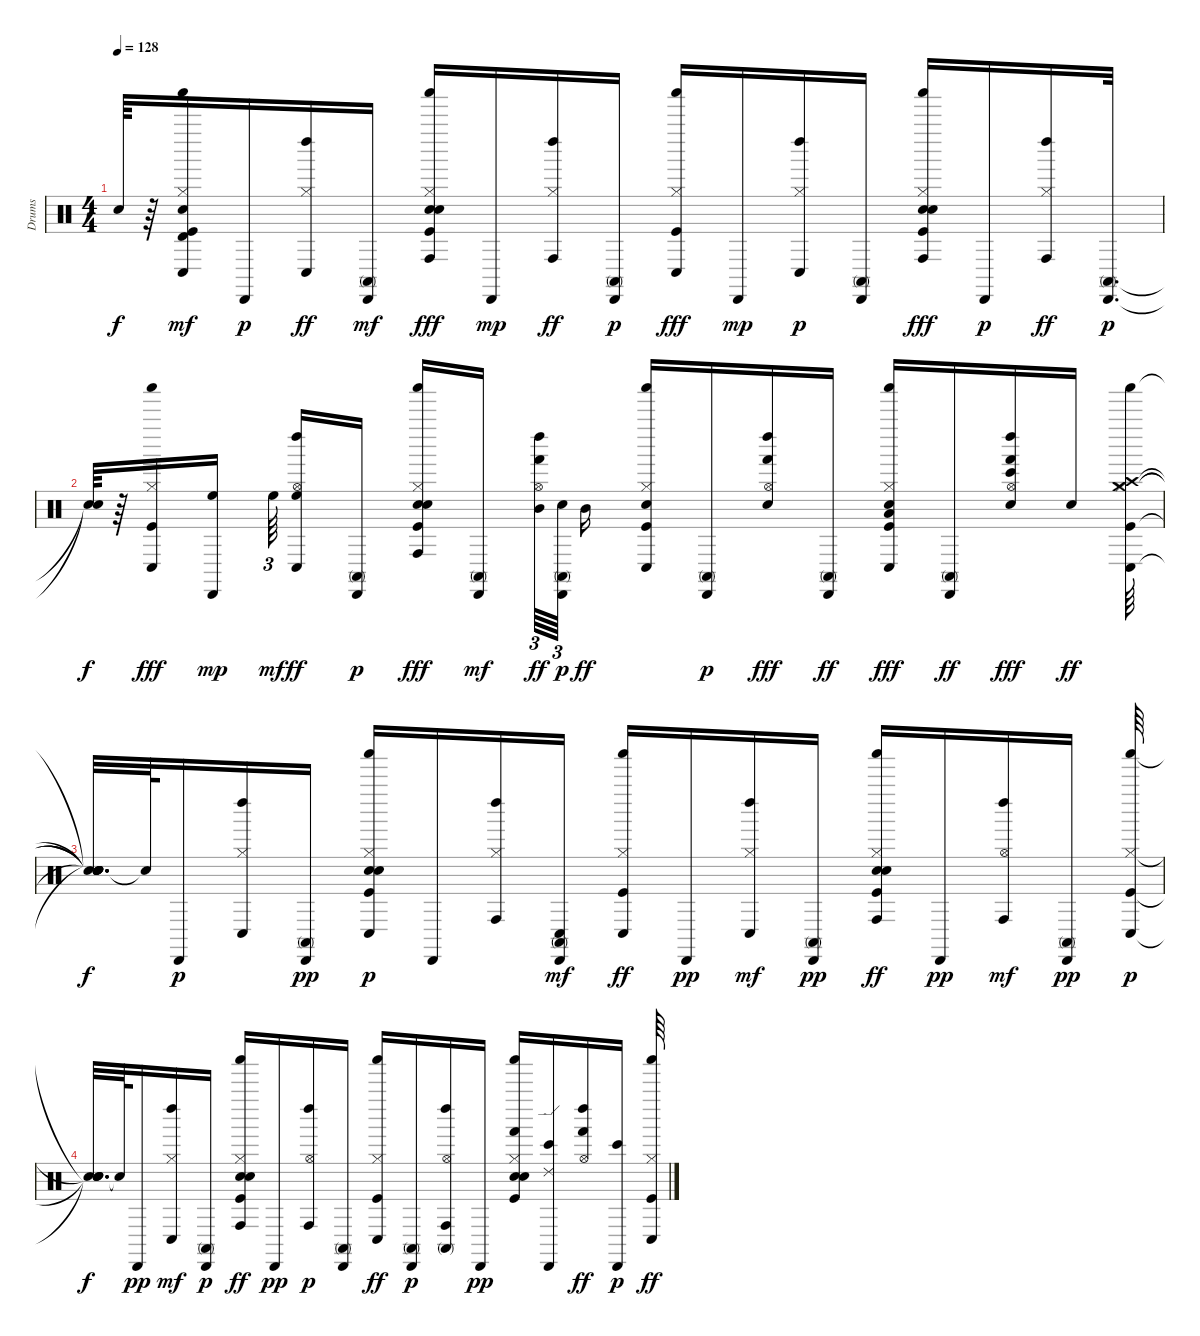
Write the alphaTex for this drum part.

\track ("Drums" "Drums") {instrument percussion}
\staff {score}
\articulation defaults
\ts (4 4)
\tempo 128
\clef neutral
\ks c "Snare (hit)"{t}.64{dy f}
r.64 ("Kick (hit)" "Snare (hit) 2" "Hi-Hat (closed)" "Shaker (hit)" "Conga low (hit)" "Timbale high (hit)").16{dy mf} "Cabasa (hit)".16{dy p} ("Hi-Hat (closed)" "Left Maraca (hit)" "Conga low (hit)").16{dy ff} ("Cabasa (hit)" "Conga high (mute)").16{dy mf} ("Kick (hit)" "Snare (hit) 2" "Hand Clap (hit)" "Hi-Hat (closed)" "Shaker (hit)" "Conga high (hit)").16{dy fff} "Cabasa (hit)".16{dy mp} ("Hi-Hat (closed)" "Left Maraca (hit)" "Conga high (hit)").16{dy ff} ("Cabasa (hit)" "Conga high (mute)").16{dy p} ("Kick (hit)" "Hi-Hat (closed)" "Shaker (hit)" "Conga low (hit)").16{dy fff} "Cabasa (hit)".16{dy mp} ("Hi-Hat (closed)" "Left Maraca (hit)" "Conga low (hit)").16{dy p} ("Cabasa (hit)" "Conga high (mute)").16 ("Kick (hit)" "Snare (hit) 2" "Hand Clap (hit)" "Hi-Hat (closed)" "Shaker (hit)" "Conga high (hit)").16{dy fff} "Cabasa (hit)".16{dy p} ("Hi-Hat (closed)" "Left Maraca (hit)" "Conga high (hit)").16{dy ff} ("Cabasa (hit)" "Conga high (mute)").32{d dy p} |
("Snare (hit)"{t} "Snare (hit)"{t}).64{dy f} r.64 ("Kick (hit)" "Hi-Hat (closed)" "Shaker (hit)" "Conga low (hit)").16{dy fff} ("Cabasa (hit)" "High Floor Tom (hit)").16{dy mp} "High Floor Tom (hit)".64{tu (3 2) dy mf} ("Hi-Hat (open)" "Left Maraca (hit)" "High Floor Tom (hit)" "Conga low (hit)").16{dy ff} ("Cabasa (hit)" "Conga high (mute)").16{dy p} ("Kick (hit)" "Snare (hit) 2" "Hand Clap (hit)" "Hi-Hat (closed)" "Shaker (hit)" "Conga high (hit)").16{dy fff} ("Cabasa (hit)" "Conga high (mute)").16{dy mf} ("Hi-Hat (open)" "Left Maraca (hit)" "Hand (hit)" "Mid Tom (hit)").64{tu (3 2) dy ff} ("Snare (hit) 2" "Cabasa (hit)" "Conga high (mute)").64{tu (3 2) dy p} "Mid Tom (hit)".16{dy ff} ("Kick (hit)" "Snare (hit) 2" "Hi-Hat (closed)" "Shaker (hit)" "Conga low (hit)").16 ("Cabasa (hit)" "Conga high (mute)").16{dy p} ("Snare (hit) 2" "Hi-Hat (open)" "Left Maraca (hit)" "Hand (hit)").16{dy fff} ("Cabasa (hit)" "Conga high (mute)").16{dy ff} ("Low Tom (hit)" "Kick (hit)" "Hand Clap (hit)" "Hi-Hat (closed)" "Shaker (hit)" "Conga low (hit)").16{dy fff} ("Cabasa (hit)" "Conga high (mute)").16{dy ff} ("Snare (hit) 2" "Hi-Hat (open)" "Left Maraca (hit)" "Hand (hit)" "Bongo High (hit)").16{dy fff} "Snare (hit) 2".16{dy ff} ("Kick (hit)" "Hi-Hat (closed)" "Crash medium (hit)" "Crash high (hit)" "Shaker (hit)" "Conga low (hit)").64 |
("Snare (hit)"{t} "Snare (hit)"{t} "Snare (hit)"{t} "Snare (hit)"{t} "Snare (hit)"{t} "Snare (hit)"{t}).32{d dy f} "Snare (hit)"{t}.64 "Cabasa (hit)".16{dy p} ("Hi-Hat (closed)" "Left Maraca (hit)" "Conga low (hit)").16 ("Cabasa (hit)" "Conga high (mute)").16{dy pp} ("Kick (hit)" "Snare (hit) 2" "Hand Clap (hit)" "Hi-Hat (closed)" "Shaker (hit)" "Conga low (hit)").16{dy p} "Cabasa (hit)".16 ("Hi-Hat (closed)" "Left Maraca (hit)" "Conga high (hit)").16 ("Cabasa (hit)" "Conga high (mute)" "Conga low (hit)").16{dy mf} ("Kick (hit)" "Hi-Hat (closed)" "Shaker (hit)" "Conga low (hit)").16{dy ff} "Cabasa (hit)".16{dy pp} ("Hi-Hat (closed)" "Left Maraca (hit)" "Conga low (hit)").16{dy mf} ("Cabasa (hit)" "Conga high (mute)").16{dy pp} ("Kick (hit)" "Snare (hit) 2" "Hand Clap (hit)" "Hi-Hat (closed)" "Shaker (hit)" "Conga high (hit)").16{dy ff} "Cabasa (hit)".16{dy pp} ("Hi-Hat (open)" "Left Maraca (hit)" "Conga high (hit)").16{dy mf} ("Cabasa (hit)" "Conga high (mute)").16{dy pp} ("Kick (hit)" "Hi-Hat (closed)" "Shaker (hit)" "Conga low (hit)").64{dy p} |
("Snare (hit)"{t} "Snare (hit)"{t} "Snare (hit)"{t} "Snare (hit)"{t}).32{d dy f} "Snare (hit)"{t}.64 "Cabasa (hit)".16{dy pp} ("Hi-Hat (closed)" "Left Maraca (hit)" "Conga low (hit)").16{dy mf} ("Cabasa (hit)" "Conga high (mute)").16{dy p} ("Kick (hit)" "Snare (hit) 2" "Hand Clap (hit)" "Hi-Hat (closed)" "Shaker (hit)" "Conga high (hit)").16{dy ff} "Cabasa (hit)".16{dy pp} ("Hi-Hat (open)" "Left Maraca (hit)" "Conga high (hit)").16{dy p} ("Cabasa (hit)" "Conga high (mute)").16 ("Kick (hit)" "Hi-Hat (closed)" "Shaker (hit)" "Conga low (hit)").16{dy ff} ("Cabasa (hit)" "Conga high (mute)").16{dy p} ("Hi-Hat (open)" "Left Maraca (hit)" "Conga high (hit)" "Conga high (mute)").16 "Cabasa (hit)".16{dy pp} ("Kick (hit)" "Snare (hit) 2" "Hand Clap (hit)" "Hi-Hat (closed)" "Shaker (hit)" "Hand (hit)").16 ("Cabasa (hit)" "Bongo High (hit)" "Ride (edge) 2").16 ("Hi-Hat (open)" "Left Maraca (hit)" "Hand (hit)").16{dy ff} ("Cabasa (hit)" "Bongo High (hit)").16{dy p} ("Kick (hit)" "Hi-Hat (closed)" "Shaker (hit)" "Conga low (hit)").64{dy ff}
